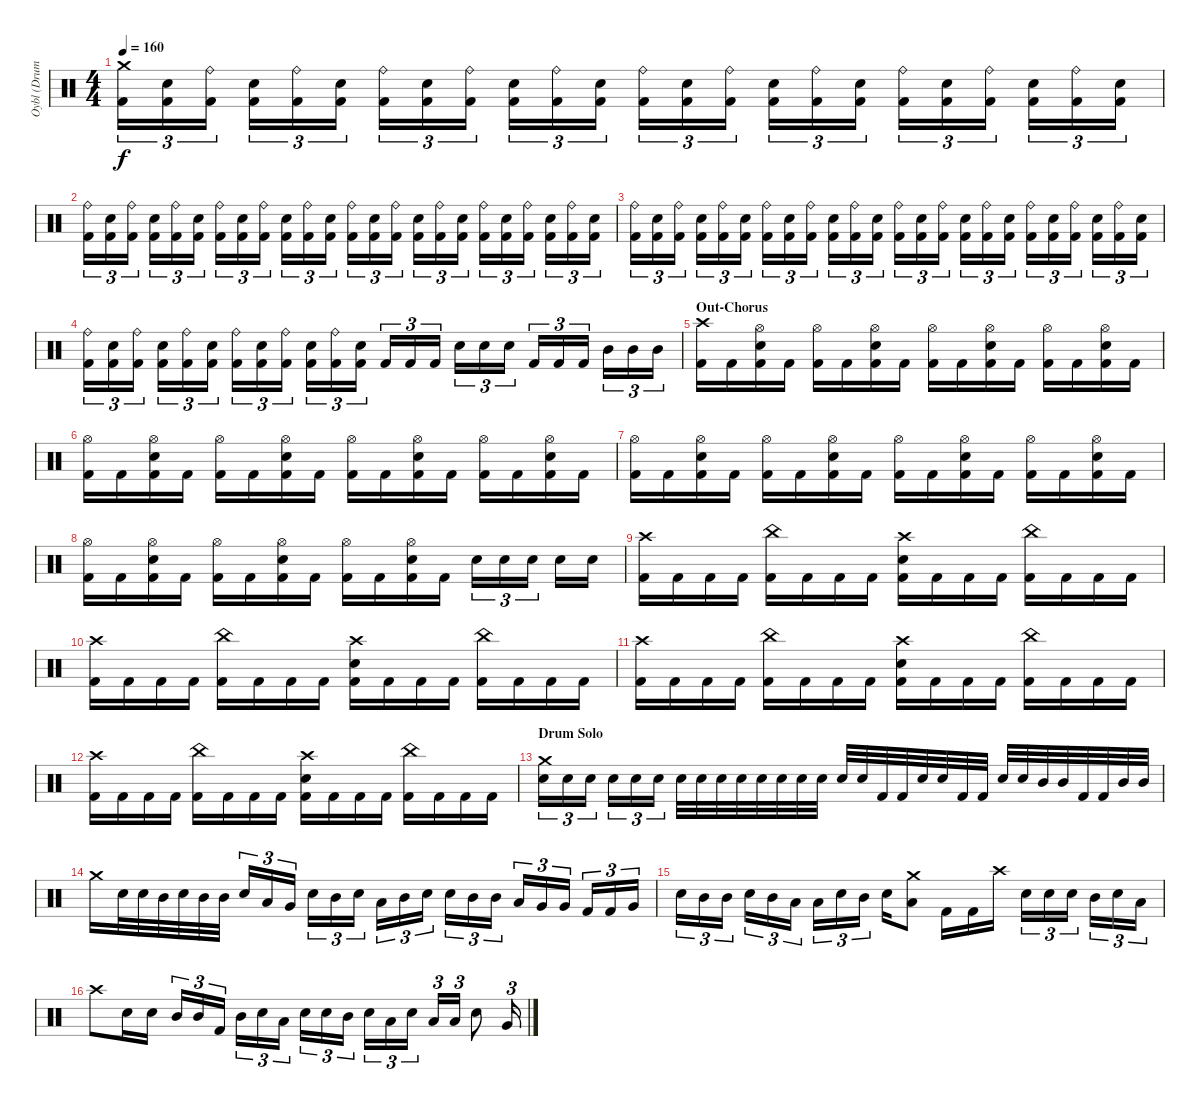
\track ("Oybl (Drums)" "Oybl (Drum") {instrument percussion}
\staff {score}
\articulation defaults
\ts (4 4)
\tempo 160
\clef neutral
\ks c
("Crash medium (hit)" "Kick (hit) 2").16{tu (3 2) dy f} ("Snare (hit) 2" "Kick (hit) 2").16{tu (3 2)} ("Ride (bell)" "Kick (hit) 2").16{tu (3 2)} ("Snare (hit) 2" "Kick (hit) 2").16{tu (3 2)} ("Ride (bell)" "Kick (hit) 2").16{tu (3 2)} ("Snare (hit) 2" "Kick (hit) 2").16{tu (3 2)} ("Ride (bell)" "Kick (hit) 2").16{tu (3 2)} ("Snare (hit) 2" "Kick (hit) 2").16{tu (3 2)} ("Ride (bell)" "Kick (hit) 2").16{tu (3 2)} ("Snare (hit) 2" "Kick (hit) 2").16{tu (3 2)} ("Ride (bell)" "Kick (hit) 2").16{tu (3 2)} ("Snare (hit) 2" "Kick (hit) 2").16{tu (3 2)} ("Ride (bell)" "Kick (hit) 2").16{tu (3 2)} ("Snare (hit) 2" "Kick (hit) 2").16{tu (3 2)} ("Ride (bell)" "Kick (hit) 2").16{tu (3 2)} ("Snare (hit) 2" "Kick (hit) 2").16{tu (3 2)} ("Ride (bell)" "Kick (hit) 2").16{tu (3 2)} ("Snare (hit) 2" "Kick (hit) 2").16{tu (3 2)} ("Ride (bell)" "Kick (hit) 2").16{tu (3 2)} ("Snare (hit) 2" "Kick (hit) 2").16{tu (3 2)} ("Ride (bell)" "Kick (hit) 2").16{tu (3 2)} ("Snare (hit) 2" "Kick (hit) 2").16{tu (3 2)} ("Ride (bell)" "Kick (hit) 2").16{tu (3 2)} ("Snare (hit) 2" "Kick (hit) 2").16{tu (3 2)} |
("Ride (bell)" "Kick (hit) 2").16{tu (3 2)} ("Snare (hit) 2" "Kick (hit) 2").16{tu (3 2)} ("Ride (bell)" "Kick (hit) 2").16{tu (3 2)} ("Snare (hit) 2" "Kick (hit) 2").16{tu (3 2)} ("Ride (bell)" "Kick (hit) 2").16{tu (3 2)} ("Snare (hit) 2" "Kick (hit) 2").16{tu (3 2)} ("Ride (bell)" "Kick (hit) 2").16{tu (3 2)} ("Snare (hit) 2" "Kick (hit) 2").16{tu (3 2)} ("Ride (bell)" "Kick (hit) 2").16{tu (3 2)} ("Snare (hit) 2" "Kick (hit) 2").16{tu (3 2)} ("Ride (bell)" "Kick (hit) 2").16{tu (3 2)} ("Snare (hit) 2" "Kick (hit) 2").16{tu (3 2)} ("Ride (bell)" "Kick (hit) 2").16{tu (3 2)} ("Snare (hit) 2" "Kick (hit) 2").16{tu (3 2)} ("Ride (bell)" "Kick (hit) 2").16{tu (3 2)} ("Snare (hit) 2" "Kick (hit) 2").16{tu (3 2)} ("Ride (bell)" "Kick (hit) 2").16{tu (3 2)} ("Snare (hit) 2" "Kick (hit) 2").16{tu (3 2)} ("Ride (bell)" "Kick (hit) 2").16{tu (3 2)} ("Snare (hit) 2" "Kick (hit) 2").16{tu (3 2)} ("Ride (bell)" "Kick (hit) 2").16{tu (3 2)} ("Snare (hit) 2" "Kick (hit) 2").16{tu (3 2)} ("Ride (bell)" "Kick (hit) 2").16{tu (3 2)} ("Snare (hit) 2" "Kick (hit) 2").16{tu (3 2)} |
("Ride (bell)" "Kick (hit) 2").16{tu (3 2)} ("Snare (hit) 2" "Kick (hit) 2").16{tu (3 2)} ("Ride (bell)" "Kick (hit) 2").16{tu (3 2)} ("Snare (hit) 2" "Kick (hit) 2").16{tu (3 2)} ("Ride (bell)" "Kick (hit) 2").16{tu (3 2)} ("Snare (hit) 2" "Kick (hit) 2").16{tu (3 2)} ("Ride (bell)" "Kick (hit) 2").16{tu (3 2)} ("Snare (hit) 2" "Kick (hit) 2").16{tu (3 2)} ("Ride (bell)" "Kick (hit) 2").16{tu (3 2)} ("Snare (hit) 2" "Kick (hit) 2").16{tu (3 2)} ("Ride (bell)" "Kick (hit) 2").16{tu (3 2)} ("Snare (hit) 2" "Kick (hit) 2").16{tu (3 2)} ("Ride (bell)" "Kick (hit) 2").16{tu (3 2)} ("Snare (hit) 2" "Kick (hit) 2").16{tu (3 2)} ("Ride (bell)" "Kick (hit) 2").16{tu (3 2)} ("Snare (hit) 2" "Kick (hit) 2").16{tu (3 2)} ("Ride (bell)" "Kick (hit) 2").16{tu (3 2)} ("Snare (hit) 2" "Kick (hit) 2").16{tu (3 2)} ("Ride (bell)" "Kick (hit) 2").16{tu (3 2)} ("Snare (hit) 2" "Kick (hit) 2").16{tu (3 2)} ("Ride (bell)" "Kick (hit) 2").16{tu (3 2)} ("Snare (hit) 2" "Kick (hit) 2").16{tu (3 2)} ("Ride (bell)" "Kick (hit) 2").16{tu (3 2)} ("Snare (hit) 2" "Kick (hit) 2").16{tu (3 2)} |
("Ride (bell)" "Kick (hit) 2").16{tu (3 2)} ("Snare (hit) 2" "Kick (hit) 2").16{tu (3 2)} ("Ride (bell)" "Kick (hit) 2").16{tu (3 2)} ("Snare (hit) 2" "Kick (hit) 2").16{tu (3 2)} ("Ride (bell)" "Kick (hit) 2").16{tu (3 2)} ("Snare (hit) 2" "Kick (hit) 2").16{tu (3 2)} ("Ride (bell)" "Kick (hit) 2").16{tu (3 2)} ("Snare (hit) 2" "Kick (hit) 2").16{tu (3 2)} ("Ride (bell)" "Kick (hit) 2").16{tu (3 2)} ("Snare (hit) 2" "Kick (hit) 2").16{tu (3 2)} ("Ride (bell)" "Kick (hit) 2").16{tu (3 2)} ("Snare (hit) 2" "Kick (hit) 2").16{tu (3 2)} "Kick (hit) 2".16{tu (3 2)} "Kick (hit) 2".16{tu (3 2)} "Kick (hit) 2".16{tu (3 2)} "Snare (hit) 2".16{tu (3 2)} "Snare (hit) 2".16{tu (3 2)} "Snare (hit) 2".16{tu (3 2)} "Kick (hit) 2".16{tu (3 2)} "Kick (hit) 2".16{tu (3 2)} "Kick (hit) 2".16{tu (3 2)} "Mid Tom (hit)".16{tu (3 2)} "Mid Tom (hit)".16{tu (3 2)} "Mid Tom (hit)".16{tu (3 2)} |
\section ("" "Out-Chorus")
("Crash high (hit)" "Kick (hit) 2").16 "Kick (hit) 2".16 ("Hi-Hat (open)" "Snare (hit) 2" "Kick (hit) 2").16 "Kick (hit) 2".16 ("Hi-Hat (open)" "Kick (hit) 2").16 "Kick (hit) 2".16 ("Hi-Hat (open)" "Snare (hit) 2" "Kick (hit) 2").16 "Kick (hit) 2".16 ("Hi-Hat (open)" "Kick (hit) 2").16 "Kick (hit) 2".16 ("Hi-Hat (open)" "Snare (hit) 2" "Kick (hit) 2").16 "Kick (hit) 2".16 ("Hi-Hat (open)" "Kick (hit) 2").16 "Kick (hit) 2".16 ("Hi-Hat (open)" "Snare (hit) 2" "Kick (hit) 2").16 "Kick (hit) 2".16 |
("Hi-Hat (open)" "Kick (hit) 2").16 "Kick (hit) 2".16 ("Hi-Hat (open)" "Snare (hit) 2" "Kick (hit) 2").16 "Kick (hit) 2".16 ("Hi-Hat (open)" "Kick (hit) 2").16 "Kick (hit) 2".16 ("Hi-Hat (open)" "Snare (hit) 2" "Kick (hit) 2").16 "Kick (hit) 2".16 ("Hi-Hat (open)" "Kick (hit) 2").16 "Kick (hit) 2".16 ("Hi-Hat (open)" "Snare (hit) 2" "Kick (hit) 2").16 "Kick (hit) 2".16 ("Hi-Hat (open)" "Kick (hit) 2").16 "Kick (hit) 2".16 ("Hi-Hat (open)" "Snare (hit) 2" "Kick (hit) 2").16 "Kick (hit) 2".16 |
("Hi-Hat (open)" "Kick (hit) 2").16 "Kick (hit) 2".16 ("Hi-Hat (open)" "Snare (hit) 2" "Kick (hit) 2").16 "Kick (hit) 2".16 ("Hi-Hat (open)" "Kick (hit) 2").16 "Kick (hit) 2".16 ("Hi-Hat (open)" "Snare (hit) 2" "Kick (hit) 2").16 "Kick (hit) 2".16 ("Hi-Hat (open)" "Kick (hit) 2").16 "Kick (hit) 2".16 ("Hi-Hat (open)" "Snare (hit) 2" "Kick (hit) 2").16 "Kick (hit) 2".16 ("Hi-Hat (open)" "Kick (hit) 2").16 "Kick (hit) 2".16 ("Hi-Hat (open)" "Snare (hit) 2" "Kick (hit) 2").16 "Kick (hit) 2".16 |
("Hi-Hat (open)" "Kick (hit) 2").16 "Kick (hit) 2".16 ("Hi-Hat (open)" "Snare (hit) 2" "Kick (hit) 2").16 "Kick (hit) 2".16 ("Hi-Hat (open)" "Kick (hit) 2").16 "Kick (hit) 2".16 ("Hi-Hat (open)" "Snare (hit) 2" "Kick (hit) 2").16 "Kick (hit) 2".16 ("Hi-Hat (open)" "Kick (hit) 2").16 "Kick (hit) 2".16 ("Hi-Hat (open)" "Snare (hit) 2" "Kick (hit) 2").16 "Kick (hit) 2".16 "Snare (hit) 2".16{tu (3 2)} "Snare (hit) 2".16{tu (3 2)} "Snare (hit) 2".16{tu (3 2)} "Snare (hit) 2".16 "Snare (hit) 2".16 |
("Crash high (hit)" "Kick (hit) 2").16 "Kick (hit) 2".16 "Kick (hit) 2".16 "Kick (hit) 2".16 ("China (hit)" "Kick (hit) 2").16 "Kick (hit) 2".16 "Kick (hit) 2".16 "Kick (hit) 2".16 ("Crash high (hit)" "Snare (hit) 2" "Kick (hit) 2").16 "Kick (hit) 2".16 "Kick (hit) 2".16 "Kick (hit) 2".16 ("China (hit)" "Kick (hit) 2").16 "Kick (hit) 2".16 "Kick (hit) 2".16 "Kick (hit) 2".16 |
("Crash high (hit)" "Kick (hit) 2").16 "Kick (hit) 2".16 "Kick (hit) 2".16 "Kick (hit) 2".16 ("China (hit)" "Kick (hit) 2").16 "Kick (hit) 2".16 "Kick (hit) 2".16 "Kick (hit) 2".16 ("Crash high (hit)" "Snare (hit) 2" "Kick (hit) 2").16 "Kick (hit) 2".16 "Kick (hit) 2".16 "Kick (hit) 2".16 ("China (hit)" "Kick (hit) 2").16 "Kick (hit) 2".16 "Kick (hit) 2".16 "Kick (hit) 2".16 |
("Crash high (hit)" "Kick (hit) 2").16 "Kick (hit) 2".16 "Kick (hit) 2".16 "Kick (hit) 2".16 ("China (hit)" "Kick (hit) 2").16 "Kick (hit) 2".16 "Kick (hit) 2".16 "Kick (hit) 2".16 ("Crash high (hit)" "Snare (hit) 2" "Kick (hit) 2").16 "Kick (hit) 2".16 "Kick (hit) 2".16 "Kick (hit) 2".16 ("China (hit)" "Kick (hit) 2").16 "Kick (hit) 2".16 "Kick (hit) 2".16 "Kick (hit) 2".16 |
("Crash high (hit)" "Kick (hit) 2").16 "Kick (hit) 2".16 "Kick (hit) 2".16 "Kick (hit) 2".16 ("China (hit)" "Kick (hit) 2").16 "Kick (hit) 2".16 "Kick (hit) 2".16 "Kick (hit) 2".16 ("Crash high (hit)" "Snare (hit) 2" "Kick (hit) 2").16 "Kick (hit) 2".16 "Kick (hit) 2".16 "Kick (hit) 2".16 ("China (hit)" "Kick (hit) 2").16 "Kick (hit) 2".16 "Kick (hit) 2".16 "Kick (hit) 2".16 |
\section ("" "Drum Solo")
("Crash medium (hit)" "Snare (hit) 2").16{tu (3 2)} "Snare (hit) 2".16{tu (3 2)} "Snare (hit) 2".16{tu (3 2)} "Snare (hit) 2".16{tu (3 2)} "Snare (hit) 2".16{tu (3 2)} "Snare (hit) 2".16{tu (3 2)} "Snare (hit) 2".32 "Snare (hit) 2".32 "Snare (hit) 2".32 "Snare (hit) 2".32 "Snare (hit) 2".32 "Snare (hit) 2".32 "Snare (hit) 2".32 "Snare (hit) 2".32 "Snare (hit) 2".32 "Snare (hit) 2".32 "Kick (hit) 2".32 "Kick (hit) 2".32 "Snare (hit) 2".32 "Snare (hit) 2".32 "Kick (hit) 2".32 "Kick (hit) 2".32 "Snare (hit) 2".32 "Snare (hit) 2".32 "Mid Tom (hit)".32 "Mid Tom (hit)".32 "Kick (hit) 2".32 "Kick (hit) 2".32 "Mid Tom (hit)".32 "Mid Tom (hit)".32 |
"Crash medium (hit)".16 "Electric Snare (hit)".32 "Electric Snare (hit)".32 "Mid Tom (hit)".32 "Electric Snare (hit)".32 "Mid Tom (hit)".32 "Mid Tom (hit)".32 "Electric Snare (hit)".16{tu (3 2)} "Low Tom (hit)".16{tu (3 2)} "Very Low Tom (hit)".16{tu (3 2)} "Electric Snare (hit)".16{tu (3 2)} "Mid Tom (hit)".16{tu (3 2)} "Electric Snare (hit)".16{tu (3 2)} "Low Tom (hit)".16{tu (3 2)} "Mid Tom (hit)".16{tu (3 2)} "Electric Snare (hit)".16{tu (3 2)} "Electric Snare (hit)".16{tu (3 2)} "Mid Tom (hit)".16{tu (3 2)} "Mid Tom (hit)".16{tu (3 2)} "Low Tom (hit)".16{tu (3 2)} "Very Low Tom (hit)".16{tu (3 2)} "Very Low Tom (hit)".16{tu (3 2)} "Kick (hit) 2".16{tu (3 2)} "Kick (hit) 2".16{tu (3 2)} "Very Low Tom (hit)".16{tu (3 2)} |
"Electric Snare (hit)".16{tu (3 2)} "Mid Tom (hit)".16{tu (3 2)} "Mid Tom (hit)".16{tu (3 2)} "Electric Snare (hit)".16{tu (3 2)} "Mid Tom (hit)".16{tu (3 2)} "Low Tom (hit)".16{tu (3 2)} "Low Tom (hit)".16{tu (3 2)} "Electric Snare (hit)".16{tu (3 2)} "Mid Tom (hit)".16{tu (3 2)} "Electric Snare (hit)".16 ("Crash medium (hit)" "Low Tom (hit)").8 "Kick (hit) 2".16 "Kick (hit) 2".16 "Crash high (hit)".16 "Electric Snare (hit)".16{tu (3 2)} "Electric Snare (hit)".16{tu (3 2)} "Electric Snare (hit)".16{tu (3 2)} "Mid Tom (hit)".16{tu (3 2)} "Electric Snare (hit)".16{tu (3 2)} "Low Tom (hit)".16{tu (3 2)} |
"Crash high (hit)".8 "Electric Snare (hit)".16 "Electric Snare (hit)".16 "Mid Tom (hit)".16{tu (3 2)} "Mid Tom (hit)".16{tu (3 2)} "Kick (hit) 2".16{tu (3 2)} "Mid Tom (hit)".16{tu (3 2)} "Electric Snare (hit)".16{tu (3 2)} "Low Tom (hit)".16{tu (3 2)} "Electric Snare (hit)".16{tu (3 2)} "Electric Snare (hit)".16{tu (3 2)} "Mid Tom (hit)".16{tu (3 2)} "Electric Snare (hit)".16{tu (3 2)} "Low Tom (hit)".16{tu (3 2)} "Electric Snare (hit)".16{tu (3 2)} "Low Tom (hit)".16{tu (3 2)} "Low Tom (hit)".16{tu (3 2)} "Electric Snare (hit)".8 "Very Low Tom (hit)".16{tu (3 2)}
